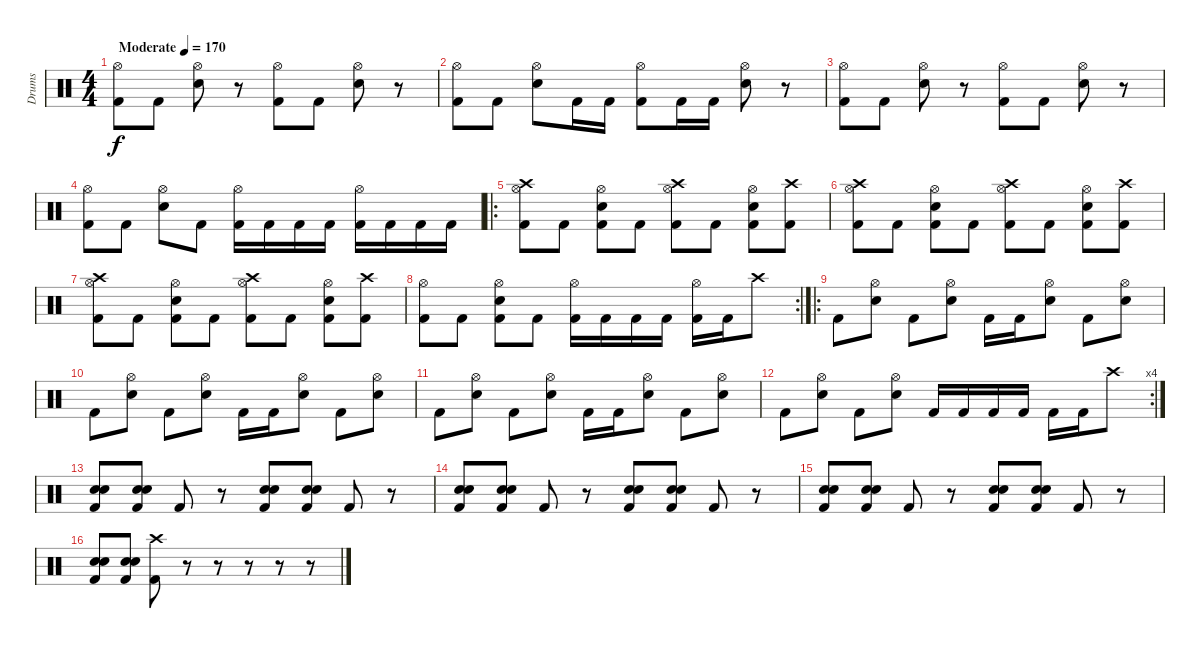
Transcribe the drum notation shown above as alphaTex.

\track ("Drums" "Drums") {instrument percussion}
\staff {score}
\articulation defaults
\ts (4 4)
\tempo (170 "Moderate")
\clef neutral
\ks c
("Hi-Hat (open)" "Kick (hit) 2").8{dy f} "Kick (hit) 2".8 ("Hi-Hat (open)" "Snare (hit) 2").8 r.8 ("Hi-Hat (open)" "Kick (hit) 2").8 "Kick (hit) 2".8 ("Hi-Hat (open)" "Snare (hit) 2").8 r.8 |
("Hi-Hat (open)" "Kick (hit) 2").8 "Kick (hit) 2".8 ("Hi-Hat (open)" "Snare (hit) 2").8 "Kick (hit) 2".16 "Kick (hit) 2".16 ("Hi-Hat (open)" "Kick (hit) 2").8 "Kick (hit) 2".16 "Kick (hit) 2".16 ("Hi-Hat (open)" "Snare (hit) 2").8 r.8 |
("Hi-Hat (open)" "Kick (hit) 2").8 "Kick (hit) 2".8 ("Hi-Hat (open)" "Snare (hit) 2").8 r.8 ("Hi-Hat (open)" "Kick (hit) 2").8 "Kick (hit) 2".8 ("Hi-Hat (open)" "Snare (hit) 2").8 r.8 |
("Hi-Hat (open)" "Kick (hit) 2").8 "Kick (hit) 2".8 ("Hi-Hat (open)" "Snare (hit) 2").8 "Kick (hit) 2".8 ("Hi-Hat (open)" "Kick (hit) 2").16 "Kick (hit) 2".16 "Kick (hit) 2".16 "Kick (hit) 2".16 ("Hi-Hat (open)" "Kick (hit) 2").16 "Kick (hit) 2".16 "Kick (hit) 2".16 "Kick (hit) 2".16 |
\ro
("Hi-Hat (open)" "Crash high (hit)" "Kick (hit) 2").8 "Kick (hit) 2".8 ("Hi-Hat (open)" "Snare (hit) 2" "Kick (hit) 2").8 "Kick (hit) 2".8 ("Hi-Hat (open)" "Crash high (hit)" "Kick (hit) 2").8 "Kick (hit) 2".8 ("Hi-Hat (open)" "Snare (hit) 2" "Kick (hit) 2").8 ("Crash high (hit)" "Kick (hit) 2").8 |
("Hi-Hat (open)" "Crash high (hit)" "Kick (hit) 2").8 "Kick (hit) 2".8 ("Hi-Hat (open)" "Snare (hit) 2" "Kick (hit) 2").8 "Kick (hit) 2".8 ("Hi-Hat (open)" "Crash high (hit)" "Kick (hit) 2").8 "Kick (hit) 2".8 ("Hi-Hat (open)" "Snare (hit) 2" "Kick (hit) 2").8 ("Crash high (hit)" "Kick (hit) 2").8 |
("Hi-Hat (open)" "Crash high (hit)" "Kick (hit) 2").8 "Kick (hit) 2".8 ("Hi-Hat (open)" "Snare (hit) 2" "Kick (hit) 2").8 "Kick (hit) 2".8 ("Hi-Hat (open)" "Crash high (hit)" "Kick (hit) 2").8 "Kick (hit) 2".8 ("Hi-Hat (open)" "Snare (hit) 2" "Kick (hit) 2").8 ("Crash high (hit)" "Kick (hit) 2").8 |
\rc 2
("Hi-Hat (open)" "Kick (hit) 2").8 "Kick (hit) 2".8 ("Hi-Hat (open)" "Snare (hit) 2" "Kick (hit) 2").8 "Kick (hit) 2".8 ("Hi-Hat (open)" "Kick (hit) 2").16 "Kick (hit) 2".16 "Kick (hit) 2".16 "Kick (hit) 2".16 ("Hi-Hat (open)" "Kick (hit) 2").16 "Kick (hit) 2".16 "Crash high (hit)".8 |
\ro "Kick (hit) 2".8
("Hi-Hat (open)" "Snare (hit) 2").8 "Kick (hit) 2".8 ("Hi-Hat (open)" "Snare (hit) 2").8 "Kick (hit) 2".16 "Kick (hit) 2".16 ("Hi-Hat (open)" "Snare (hit) 2").8 "Kick (hit) 2".8 ("Hi-Hat (open)" "Snare (hit) 2").8 |
"Kick (hit) 2".8 ("Hi-Hat (open)" "Snare (hit) 2").8 "Kick (hit) 2".8 ("Hi-Hat (open)" "Snare (hit) 2").8 "Kick (hit) 2".16 "Kick (hit) 2".16 ("Hi-Hat (open)" "Snare (hit) 2").8 "Kick (hit) 2".8 ("Hi-Hat (open)" "Snare (hit) 2").8 |
"Kick (hit) 2".8 ("Hi-Hat (open)" "Snare (hit) 2").8 "Kick (hit) 2".8 ("Hi-Hat (open)" "Snare (hit) 2").8 "Kick (hit) 2".16 "Kick (hit) 2".16 ("Hi-Hat (open)" "Snare (hit) 2").8 "Kick (hit) 2".8 ("Hi-Hat (open)" "Snare (hit) 2").8 |
\rc 4 "Kick (hit) 2".8
("Hi-Hat (open)" "Snare (hit) 2").8 "Kick (hit) 2".8 ("Hi-Hat (open)" "Snare (hit) 2").8 "Kick (hit) 2".16 "Kick (hit) 2".16 "Kick (hit) 2".16 "Kick (hit) 2".16 "Kick (hit) 2".16 "Kick (hit) 2".16 "Crash high (hit)".8 |
("Snare (hit) 2" "Snare (hit) 2" "Kick (hit) 2").8 ("Snare (hit) 2" "Snare (hit) 2" "Kick (hit) 2").8 "Kick (hit) 2".8 r.8 ("Snare (hit) 2" "Snare (hit) 2" "Kick (hit) 2").8 ("Snare (hit) 2" "Snare (hit) 2" "Kick (hit) 2").8 "Kick (hit) 2".8 r.8 |
("Snare (hit) 2" "Snare (hit) 2" "Kick (hit) 2").8 ("Snare (hit) 2" "Snare (hit) 2" "Kick (hit) 2").8 "Kick (hit) 2".8 r.8 ("Snare (hit) 2" "Snare (hit) 2" "Kick (hit) 2").8 ("Snare (hit) 2" "Snare (hit) 2" "Kick (hit) 2").8 "Kick (hit) 2".8 r.8 |
("Snare (hit) 2" "Snare (hit) 2" "Kick (hit) 2").8 ("Snare (hit) 2" "Snare (hit) 2" "Kick (hit) 2").8 "Kick (hit) 2".8 r.8 ("Snare (hit) 2" "Snare (hit) 2" "Kick (hit) 2").8 ("Snare (hit) 2" "Snare (hit) 2" "Kick (hit) 2").8 "Kick (hit) 2".8 r.8 |
("Snare (hit) 2" "Snare (hit) 2" "Kick (hit) 2").8 ("Snare (hit) 2" "Snare (hit) 2" "Kick (hit) 2").8 ("Crash high (hit)" "Kick (hit) 2").8 r.8 r.8 r.8 r.8 r.8
